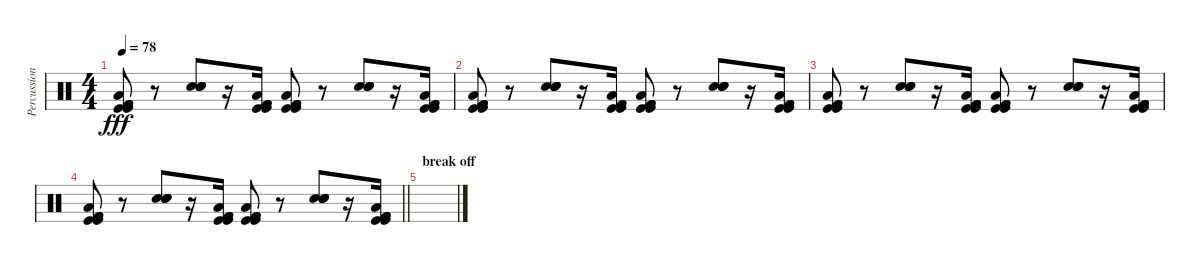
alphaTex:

\track ("Percussion" "Percussion") {instrument percussion}
\staff {score}
\articulation defaults
\ts (4 4)
\tempo 78
\clef neutral
\ks c
("Kick (hit) 2" "Kick (hit) 2" "Kick (hit)" "Kick (hit)" "Low Floor Tom (hit)").8{dy fff} r.8 ("Snare (hit) 2" "Snare (hit) 2" "Electric Snare (hit)" "Electric Snare (hit)").8 r.16 ("Kick (hit) 2" "Kick (hit) 2" "Kick (hit)" "Kick (hit)" "Low Floor Tom (hit)").16 ("Kick (hit) 2" "Kick (hit) 2" "Kick (hit)" "Kick (hit)" "Low Floor Tom (hit)").8 r.8 ("Snare (hit) 2" "Snare (hit) 2" "Electric Snare (hit)" "Electric Snare (hit)").8 r.16 ("Kick (hit) 2" "Kick (hit) 2" "Kick (hit)" "Kick (hit)" "Low Floor Tom (hit)").16 |
("Kick (hit) 2" "Kick (hit) 2" "Kick (hit)" "Kick (hit)" "Low Floor Tom (hit)").8 r.8 ("Snare (hit) 2" "Snare (hit) 2" "Electric Snare (hit)" "Electric Snare (hit)").8 r.16 ("Kick (hit) 2" "Kick (hit) 2" "Kick (hit)" "Kick (hit)" "Low Floor Tom (hit)").16 ("Kick (hit) 2" "Kick (hit) 2" "Kick (hit)" "Kick (hit)" "Low Floor Tom (hit)").8 r.8 ("Snare (hit) 2" "Snare (hit) 2" "Electric Snare (hit)" "Electric Snare (hit)").8 r.16 ("Kick (hit) 2" "Kick (hit) 2" "Kick (hit)" "Kick (hit)" "Low Floor Tom (hit)").16 |
("Kick (hit) 2" "Kick (hit) 2" "Kick (hit)" "Kick (hit)" "Low Floor Tom (hit)").8 r.8 ("Snare (hit) 2" "Snare (hit) 2" "Electric Snare (hit)" "Electric Snare (hit)").8 r.16 ("Kick (hit) 2" "Kick (hit) 2" "Kick (hit)" "Kick (hit)" "Low Floor Tom (hit)").16 ("Kick (hit) 2" "Kick (hit) 2" "Kick (hit)" "Kick (hit)" "Low Floor Tom (hit)").8 r.8 ("Snare (hit) 2" "Snare (hit) 2" "Electric Snare (hit)" "Electric Snare (hit)").8 r.16 ("Kick (hit) 2" "Kick (hit) 2" "Kick (hit)" "Kick (hit)" "Low Floor Tom (hit)").16 |
\barLineRight lightlight
("Kick (hit) 2" "Kick (hit) 2" "Kick (hit)" "Kick (hit)" "Low Floor Tom (hit)").8 r.8 ("Snare (hit) 2" "Snare (hit) 2" "Electric Snare (hit)" "Electric Snare (hit)").8 r.16 ("Kick (hit) 2" "Kick (hit) 2" "Kick (hit)" "Kick (hit)" "Low Floor Tom (hit)").16 ("Kick (hit) 2" "Kick (hit) 2" "Kick (hit)" "Kick (hit)" "Low Floor Tom (hit)").8 r.8 ("Snare (hit) 2" "Snare (hit) 2" "Electric Snare (hit)" "Electric Snare (hit)").8 r.16 ("Kick (hit) 2" "Kick (hit) 2" "Kick (hit)" "Kick (hit)" "Low Floor Tom (hit)").16 |
\section ("" "break off")
